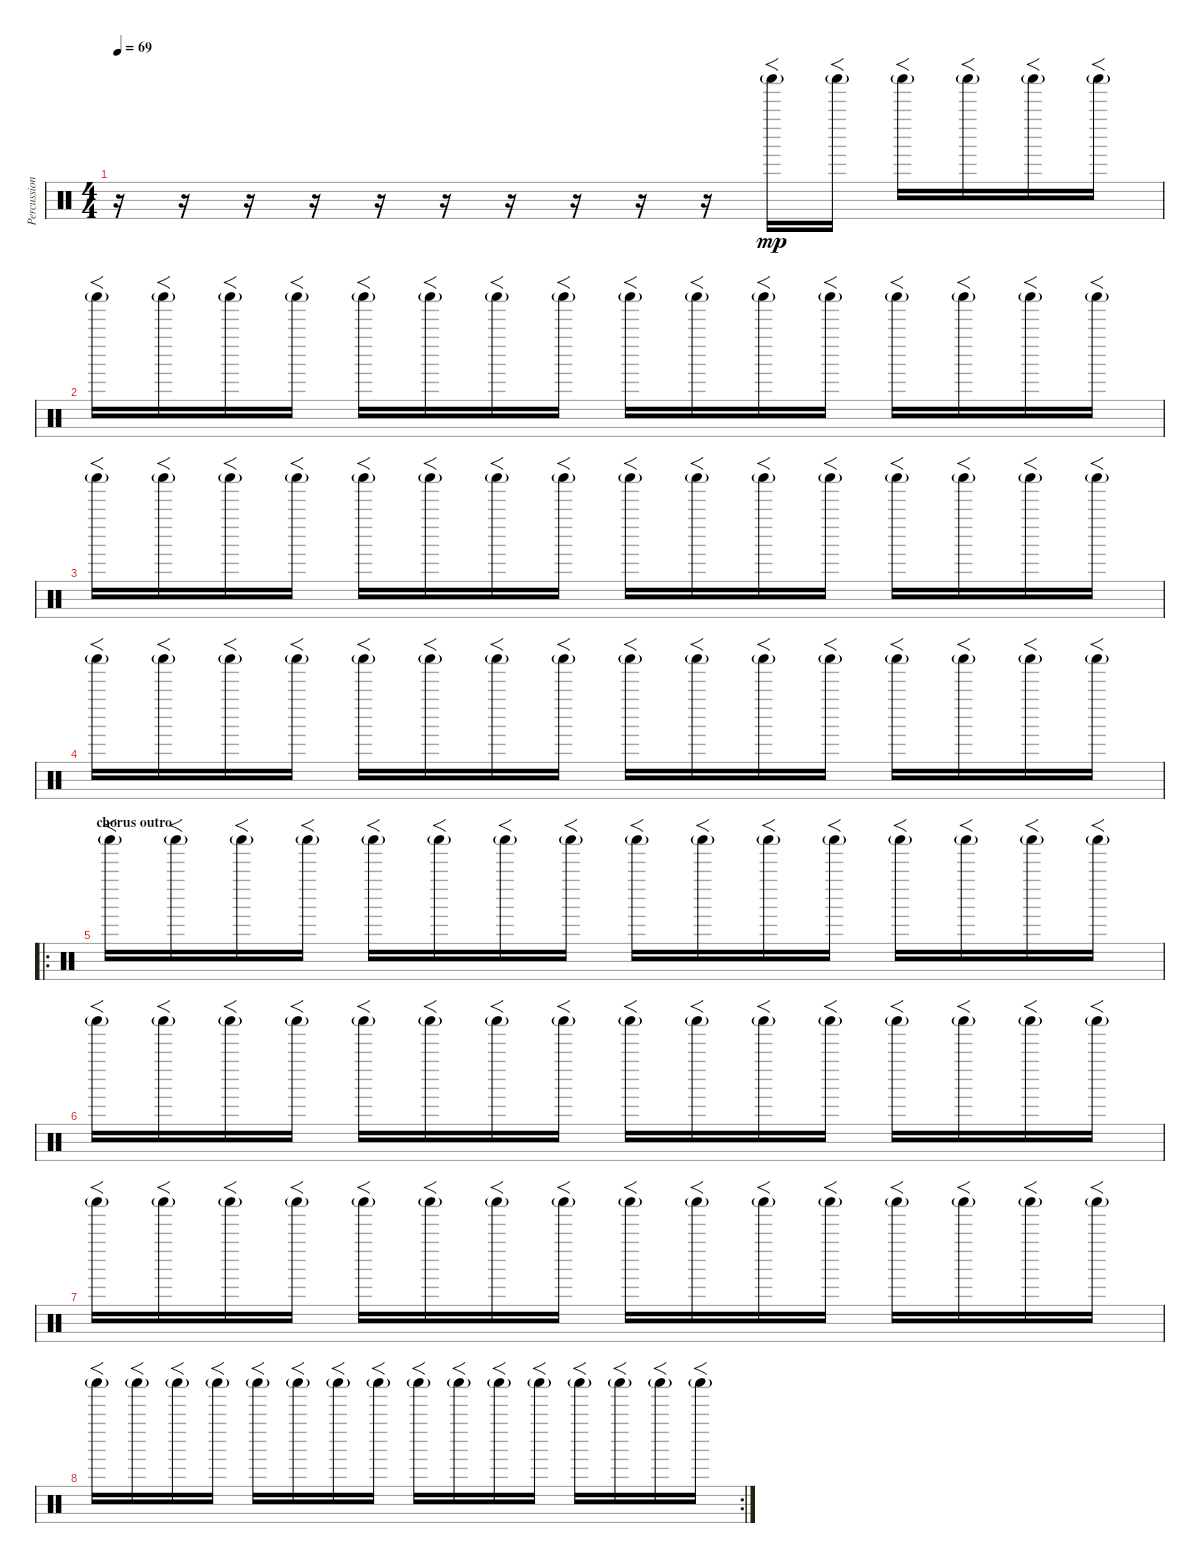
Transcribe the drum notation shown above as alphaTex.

\track ("Percussion" "Percussion") {instrument percussion}
\staff {score}
\articulation defaults
\ts (4 4)
\tempo 69
\clef neutral
\ks c
r.16{dy mp} r.16 r.16 r.16 r.16 r.16 r.16 r.16 r.16 r.16 "Shaker (hit)"{g}.16{f} "Shaker (hit)"{g}.16{f} "Shaker (hit)"{g}.16{f} "Shaker (hit)"{g}.16{f} "Shaker (hit)"{g}.16{f} "Shaker (hit)"{g}.16{f} |
"Shaker (hit)"{g}.16{f} "Shaker (hit)"{g}.16{f} "Shaker (hit)"{g}.16{f} "Shaker (hit)"{g}.16{f} "Shaker (hit)"{g}.16{f} "Shaker (hit)"{g}.16{f} "Shaker (hit)"{g}.16{f} "Shaker (hit)"{g}.16{f} "Shaker (hit)"{g}.16{f} "Shaker (hit)"{g}.16{f} "Shaker (hit)"{g}.16{f} "Shaker (hit)"{g}.16{f} "Shaker (hit)"{g}.16{f} "Shaker (hit)"{g}.16{f} "Shaker (hit)"{g}.16{f} "Shaker (hit)"{g}.16{f} |
"Shaker (hit)"{g}.16{f} "Shaker (hit)"{g}.16{f} "Shaker (hit)"{g}.16{f} "Shaker (hit)"{g}.16{f} "Shaker (hit)"{g}.16{f} "Shaker (hit)"{g}.16{f} "Shaker (hit)"{g}.16{f} "Shaker (hit)"{g}.16{f} "Shaker (hit)"{g}.16{f} "Shaker (hit)"{g}.16{f} "Shaker (hit)"{g}.16{f} "Shaker (hit)"{g}.16{f} "Shaker (hit)"{g}.16{f} "Shaker (hit)"{g}.16{f} "Shaker (hit)"{g}.16{f} "Shaker (hit)"{g}.16{f} |
"Shaker (hit)"{g}.16{f} "Shaker (hit)"{g}.16{f} "Shaker (hit)"{g}.16{f} "Shaker (hit)"{g}.16{f} "Shaker (hit)"{g}.16{f} "Shaker (hit)"{g}.16{f} "Shaker (hit)"{g}.16{f} "Shaker (hit)"{g}.16{f} "Shaker (hit)"{g}.16{f} "Shaker (hit)"{g}.16{f} "Shaker (hit)"{g}.16{f} "Shaker (hit)"{g}.16{f} "Shaker (hit)"{g}.16{f} "Shaker (hit)"{g}.16{f} "Shaker (hit)"{g}.16{f} "Shaker (hit)"{g}.16{f} |
\ro
\section ("" "chorus outro")
"Shaker (hit)"{g}.16{f} "Shaker (hit)"{g}.16{f} "Shaker (hit)"{g}.16{f} "Shaker (hit)"{g}.16{f} "Shaker (hit)"{g}.16{f} "Shaker (hit)"{g}.16{f} "Shaker (hit)"{g}.16{f} "Shaker (hit)"{g}.16{f} "Shaker (hit)"{g}.16{f} "Shaker (hit)"{g}.16{f} "Shaker (hit)"{g}.16{f} "Shaker (hit)"{g}.16{f} "Shaker (hit)"{g}.16{f} "Shaker (hit)"{g}.16{f} "Shaker (hit)"{g}.16{f} "Shaker (hit)"{g}.16{f} |
"Shaker (hit)"{g}.16{f} "Shaker (hit)"{g}.16{f} "Shaker (hit)"{g}.16{f} "Shaker (hit)"{g}.16{f} "Shaker (hit)"{g}.16{f} "Shaker (hit)"{g}.16{f} "Shaker (hit)"{g}.16{f} "Shaker (hit)"{g}.16{f} "Shaker (hit)"{g}.16{f} "Shaker (hit)"{g}.16{f} "Shaker (hit)"{g}.16{f} "Shaker (hit)"{g}.16{f} "Shaker (hit)"{g}.16{f} "Shaker (hit)"{g}.16{f} "Shaker (hit)"{g}.16{f} "Shaker (hit)"{g}.16{f} |
"Shaker (hit)"{g}.16{f} "Shaker (hit)"{g}.16{f} "Shaker (hit)"{g}.16{f} "Shaker (hit)"{g}.16{f} "Shaker (hit)"{g}.16{f} "Shaker (hit)"{g}.16{f} "Shaker (hit)"{g}.16{f} "Shaker (hit)"{g}.16{f} "Shaker (hit)"{g}.16{f} "Shaker (hit)"{g}.16{f} "Shaker (hit)"{g}.16{f} "Shaker (hit)"{g}.16{f} "Shaker (hit)"{g}.16{f} "Shaker (hit)"{g}.16{f} "Shaker (hit)"{g}.16{f} "Shaker (hit)"{g}.16{f} |
\rc 2 "Shaker (hit)"{g}.16{f} "Shaker (hit)"{g}.16{f} "Shaker (hit)"{g}.16{f} "Shaker (hit)"{g}.16{f} "Shaker (hit)"{g}.16{f} "Shaker (hit)"{g}.16{f} "Shaker (hit)"{g}.16{f} "Shaker (hit)"{g}.16{f} "Shaker (hit)"{g}.16{f} "Shaker (hit)"{g}.16{f} "Shaker (hit)"{g}.16{f} "Shaker (hit)"{g}.16{f} "Shaker (hit)"{g}.16{f} "Shaker (hit)"{g}.16{f} "Shaker (hit)"{g}.16{f} "Shaker (hit)"{g}.16{f}
